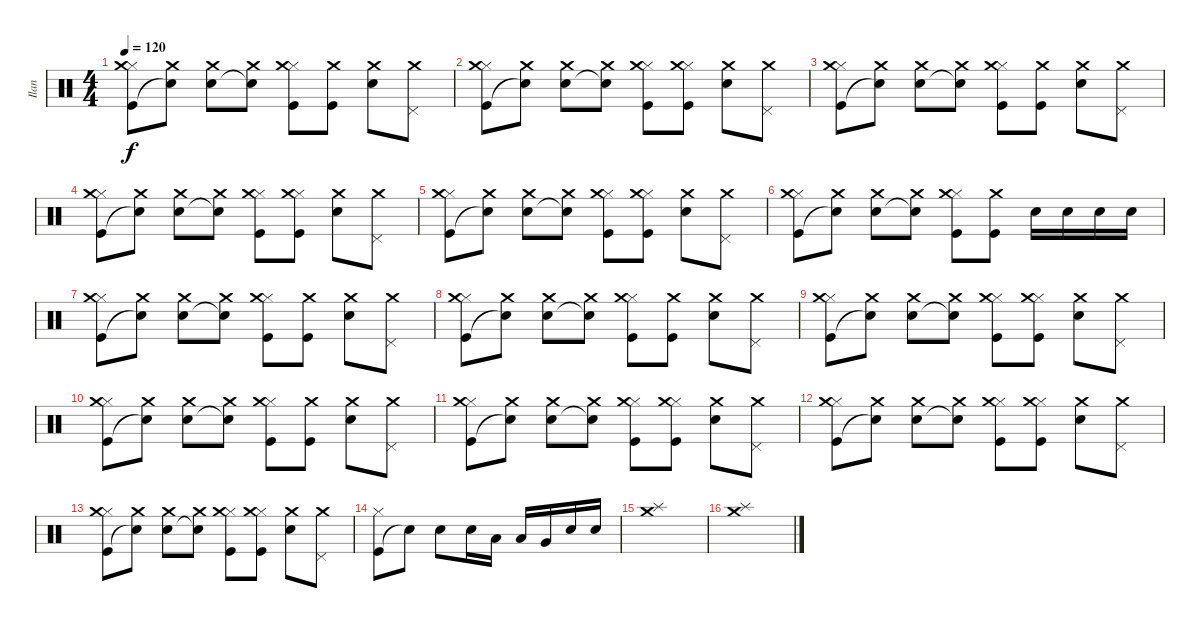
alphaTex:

\track ("Ilan" "Ilan") {instrument percussion}
\staff {score}
\articulation defaults
\ts (4 4)
\tempo 120
\clef neutral
\ks c
("Kick (hit)" "Hi-Hat (closed)" "Crash medium (hit)").8{dy f} ("Snare (hit)"{t} "Crash medium (hit)").8 ("Electric Snare (hit)" "Crash medium (hit)").8 ("Snare (hit)"{t} "Crash medium (hit)").8 ("Kick (hit)" "Hi-Hat (closed)" "Crash medium (hit)").8 ("Kick (hit)" "Crash medium (hit)").8 ("Electric Snare (hit)" "Crash medium (hit)").8 ("Pedal Hi-Hat (hit)" "Crash medium (hit)").8 |
("Kick (hit)" "Hi-Hat (closed)" "Crash medium (hit)").8 ("Snare (hit)"{t} "Crash medium (hit)").8 ("Electric Snare (hit)" "Crash medium (hit)").8 ("Snare (hit)"{t} "Crash medium (hit)").8 ("Kick (hit)" "Hi-Hat (closed)" "Crash medium (hit)").8 ("Kick (hit)" "Hi-Hat (closed)" "Crash medium (hit)").8 ("Electric Snare (hit)" "Crash medium (hit)").8 ("Pedal Hi-Hat (hit)" "Crash medium (hit)").8 |
("Kick (hit)" "Hi-Hat (closed)" "Crash medium (hit)").8 ("Snare (hit)"{t} "Crash medium (hit)").8 ("Electric Snare (hit)" "Crash medium (hit)").8 ("Snare (hit)"{t} "Crash medium (hit)").8 ("Kick (hit)" "Hi-Hat (closed)" "Crash medium (hit)").8 ("Kick (hit)" "Crash medium (hit)").8 ("Electric Snare (hit)" "Crash medium (hit)").8 ("Pedal Hi-Hat (hit)" "Crash medium (hit)").8 |
("Kick (hit)" "Hi-Hat (closed)" "Crash medium (hit)").8 ("Snare (hit)"{t} "Crash medium (hit)").8 ("Electric Snare (hit)" "Crash medium (hit)").8 ("Snare (hit)"{t} "Crash medium (hit)").8 ("Kick (hit)" "Hi-Hat (closed)" "Crash medium (hit)").8 ("Kick (hit)" "Hi-Hat (closed)" "Crash medium (hit)").8 ("Electric Snare (hit)" "Crash medium (hit)").8 ("Pedal Hi-Hat (hit)" "Crash medium (hit)").8 |
("Kick (hit)" "Hi-Hat (closed)" "Crash medium (hit)").8 ("Snare (hit)"{t} "Crash medium (hit)").8 ("Electric Snare (hit)" "Crash medium (hit)").8 ("Snare (hit)"{t} "Crash medium (hit)").8 ("Kick (hit)" "Hi-Hat (closed)" "Crash medium (hit)").8 ("Kick (hit)" "Hi-Hat (closed)" "Crash medium (hit)").8 ("Electric Snare (hit)" "Crash medium (hit)").8 ("Pedal Hi-Hat (hit)" "Crash medium (hit)").8 |
("Kick (hit)" "Hi-Hat (closed)" "Crash medium (hit)").8 ("Snare (hit)"{t} "Crash medium (hit)").8 ("Electric Snare (hit)" "Crash medium (hit)").8 ("Snare (hit)"{t} "Crash medium (hit)").8 ("Kick (hit)" "Hi-Hat (closed)" "Crash medium (hit)").8 ("Kick (hit)" "Crash medium (hit)").8 "Electric Snare (hit)".16 "Electric Snare (hit)".16 "Electric Snare (hit)".16 "Electric Snare (hit)".16 |
("Kick (hit)" "Hi-Hat (closed)" "Crash medium (hit)").8 ("Snare (hit)"{t} "Crash medium (hit)").8 ("Electric Snare (hit)" "Crash medium (hit)").8 ("Snare (hit)"{t} "Crash medium (hit)").8 ("Kick (hit)" "Hi-Hat (closed)" "Crash medium (hit)").8 ("Kick (hit)" "Crash medium (hit)").8 ("Electric Snare (hit)" "Crash medium (hit)").8 ("Pedal Hi-Hat (hit)" "Crash medium (hit)").8 |
("Kick (hit)" "Hi-Hat (closed)" "Crash medium (hit)").8 ("Snare (hit)"{t} "Crash medium (hit)").8 ("Electric Snare (hit)" "Crash medium (hit)").8 ("Snare (hit)"{t} "Crash medium (hit)").8 ("Kick (hit)" "Hi-Hat (closed)" "Crash medium (hit)").8 ("Kick (hit)" "Crash medium (hit)").8 ("Electric Snare (hit)" "Crash medium (hit)").8 ("Pedal Hi-Hat (hit)" "Crash medium (hit)").8 |
("Kick (hit)" "Hi-Hat (closed)" "Crash medium (hit)").8 ("Snare (hit)"{t} "Crash medium (hit)").8 ("Electric Snare (hit)" "Crash medium (hit)").8 ("Snare (hit)"{t} "Crash medium (hit)").8 ("Kick (hit)" "Hi-Hat (closed)" "Crash medium (hit)").8 ("Kick (hit)" "Hi-Hat (closed)" "Crash medium (hit)").8 ("Electric Snare (hit)" "Crash medium (hit)").8 ("Pedal Hi-Hat (hit)" "Crash medium (hit)").8 |
("Kick (hit)" "Hi-Hat (closed)" "Crash medium (hit)").8 ("Snare (hit)"{t} "Crash medium (hit)").8 ("Electric Snare (hit)" "Crash medium (hit)").8 ("Snare (hit)"{t} "Crash medium (hit)").8 ("Kick (hit)" "Hi-Hat (closed)" "Crash medium (hit)").8 ("Kick (hit)" "Crash medium (hit)").8 ("Electric Snare (hit)" "Crash medium (hit)").8 ("Pedal Hi-Hat (hit)" "Crash medium (hit)").8 |
("Kick (hit)" "Hi-Hat (closed)" "Crash medium (hit)").8 ("Snare (hit)"{t} "Crash medium (hit)").8 ("Electric Snare (hit)" "Crash medium (hit)").8 ("Snare (hit)"{t} "Crash medium (hit)").8 ("Kick (hit)" "Hi-Hat (closed)" "Crash medium (hit)").8 ("Kick (hit)" "Hi-Hat (closed)" "Crash medium (hit)").8 ("Electric Snare (hit)" "Crash medium (hit)").8 ("Pedal Hi-Hat (hit)" "Crash medium (hit)").8 |
("Kick (hit)" "Hi-Hat (closed)" "Crash medium (hit)").8 ("Snare (hit)"{t} "Crash medium (hit)").8 ("Electric Snare (hit)" "Crash medium (hit)").8 ("Snare (hit)"{t} "Crash medium (hit)").8 ("Kick (hit)" "Hi-Hat (closed)" "Crash medium (hit)").8 ("Kick (hit)" "Hi-Hat (closed)" "Crash medium (hit)").8 ("Electric Snare (hit)" "Crash medium (hit)").8 ("Pedal Hi-Hat (hit)" "Crash medium (hit)").8 |
("Kick (hit)" "Hi-Hat (closed)" "Crash medium (hit)").8 ("Snare (hit)"{t} "Crash medium (hit)").8 ("Electric Snare (hit)" "Crash medium (hit)").8 ("Snare (hit)"{t} "Crash medium (hit)").8 ("Kick (hit)" "Hi-Hat (closed)" "Crash medium (hit)").8 ("Kick (hit)" "Hi-Hat (closed)" "Crash medium (hit)").8 ("Electric Snare (hit)" "Crash medium (hit)").8 ("Pedal Hi-Hat (hit)" "Crash medium (hit)").8 |
("Kick (hit)" "Hi-Hat (closed)").8 "Snare (hit)"{t}.8 "Electric Snare (hit)".8 "Electric Snare (hit)".16 "Low Floor Tom (hit)".16 "Low Floor Tom (hit)".16 "Very Low Tom (hit)".16 "Electric Snare (hit)".16 "Electric Snare (hit)".16 |
("Splash (hit)" "Crash medium (hit)").1 |
("Splash (hit)" "Crash medium (hit)").1
